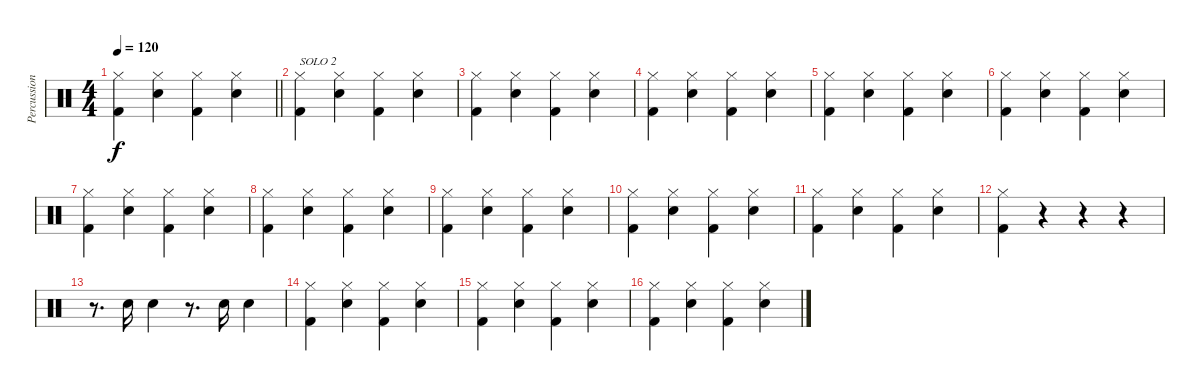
\track ("Percussions" "Percussion") {instrument percussion}
\staff {score}
\articulation defaults
\ts (4 4)
\tempo 120
\clef neutral
\barLineRight lightlight
\ks c
("Hi-Hat (closed)" "Kick (hit) 2").4{dy f} ("Hi-Hat (closed)" "Electric Snare (hit)").4 ("Hi-Hat (closed)" "Kick (hit) 2").4 ("Hi-Hat (closed)" "Electric Snare (hit)").4 |
("Hi-Hat (closed)" "Kick (hit) 2").4{txt "SOLO 2"} ("Hi-Hat (closed)" "Electric Snare (hit)").4 ("Hi-Hat (closed)" "Kick (hit) 2").4 ("Hi-Hat (closed)" "Electric Snare (hit)").4 |
("Hi-Hat (closed)" "Kick (hit) 2").4 ("Hi-Hat (closed)" "Electric Snare (hit)").4 ("Hi-Hat (closed)" "Kick (hit) 2").4 ("Hi-Hat (closed)" "Electric Snare (hit)").4 |
("Hi-Hat (closed)" "Kick (hit) 2").4 ("Hi-Hat (closed)" "Electric Snare (hit)").4 ("Hi-Hat (closed)" "Kick (hit) 2").4 ("Hi-Hat (closed)" "Electric Snare (hit)").4 |
("Hi-Hat (closed)" "Kick (hit) 2").4 ("Hi-Hat (closed)" "Electric Snare (hit)").4 ("Hi-Hat (closed)" "Kick (hit) 2").4 ("Hi-Hat (closed)" "Electric Snare (hit)").4 |
("Hi-Hat (closed)" "Kick (hit) 2").4 ("Hi-Hat (closed)" "Electric Snare (hit)").4 ("Hi-Hat (closed)" "Kick (hit) 2").4 ("Hi-Hat (closed)" "Electric Snare (hit)").4 |
("Hi-Hat (closed)" "Kick (hit) 2").4 ("Hi-Hat (closed)" "Electric Snare (hit)").4 ("Hi-Hat (closed)" "Kick (hit) 2").4 ("Hi-Hat (closed)" "Electric Snare (hit)").4 |
("Hi-Hat (closed)" "Kick (hit) 2").4 ("Hi-Hat (closed)" "Electric Snare (hit)").4 ("Hi-Hat (closed)" "Kick (hit) 2").4 ("Hi-Hat (closed)" "Electric Snare (hit)").4 |
("Hi-Hat (closed)" "Kick (hit) 2").4 ("Hi-Hat (closed)" "Electric Snare (hit)").4 ("Hi-Hat (closed)" "Kick (hit) 2").4 ("Hi-Hat (closed)" "Electric Snare (hit)").4 |
("Hi-Hat (closed)" "Kick (hit) 2").4 ("Hi-Hat (closed)" "Electric Snare (hit)").4 ("Hi-Hat (closed)" "Kick (hit) 2").4 ("Hi-Hat (closed)" "Electric Snare (hit)").4 |
("Hi-Hat (closed)" "Kick (hit) 2").4 ("Hi-Hat (closed)" "Electric Snare (hit)").4 ("Hi-Hat (closed)" "Kick (hit) 2").4 ("Hi-Hat (closed)" "Electric Snare (hit)").4 |
("Hi-Hat (closed)" "Kick (hit) 2").4 r.4 r.4 r.4 |
r.8{d} "Electric Snare (hit)".16 "Electric Snare (hit)".4 r.8{d} "Electric Snare (hit)".16 "Electric Snare (hit)".4 |
("Hi-Hat (closed)" "Kick (hit) 2").4 ("Hi-Hat (closed)" "Electric Snare (hit)").4 ("Hi-Hat (closed)" "Kick (hit) 2").4 ("Hi-Hat (closed)" "Electric Snare (hit)").4 |
("Hi-Hat (closed)" "Kick (hit) 2").4 ("Hi-Hat (closed)" "Electric Snare (hit)").4 ("Hi-Hat (closed)" "Kick (hit) 2").4 ("Hi-Hat (closed)" "Electric Snare (hit)").4 |
("Hi-Hat (closed)" "Kick (hit) 2").4 ("Hi-Hat (closed)" "Electric Snare (hit)").4 ("Hi-Hat (closed)" "Kick (hit) 2").4 ("Hi-Hat (closed)" "Electric Snare (hit)").4
